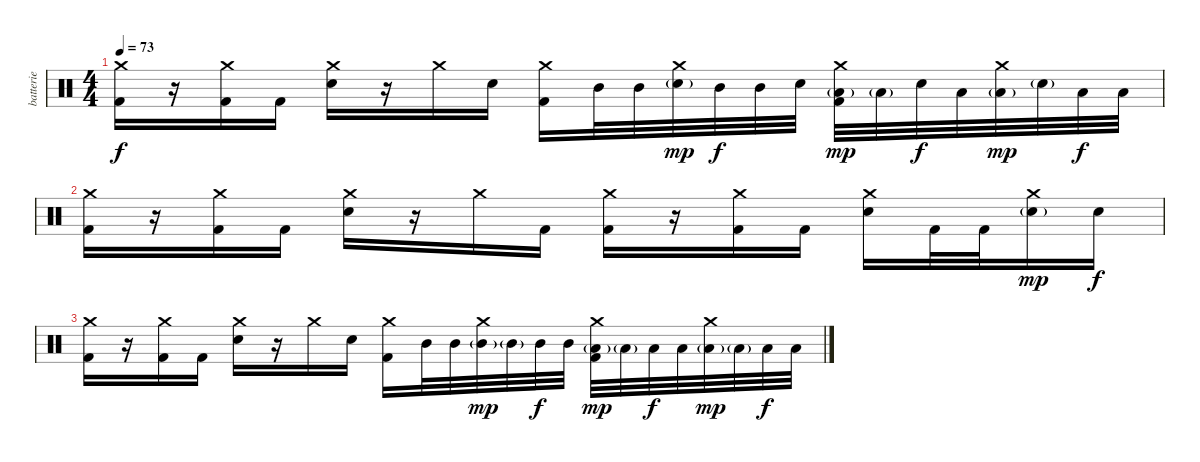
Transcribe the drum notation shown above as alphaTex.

\track ("batterie" "batterie") {instrument percussion}
\staff {score}
\articulation defaults
\ts (4 4)
\tempo 73
\clef neutral
\ks c
("Crash medium (hit)" "Kick (hit) 2").16{dy f volume 9} r.16 ("Crash medium (hit)" "Kick (hit) 2").16 "Kick (hit) 2".16 ("Crash medium (hit)" "Electric Snare (hit)").16 r.16 "Crash medium (hit)".16 "Electric Snare (hit)".16 ("Crash medium (hit)" "Kick (hit) 2").16 "Mid Tom (hit)".32 "Mid Tom (hit)".32 ("Crash medium (hit)" "Electric Snare (hit)"{g}).32{dy mp} "Mid Tom (hit)".32{dy f} "Mid Tom (hit)".32 "Electric Snare (hit)".32 ("Crash medium (hit)" "Low Tom (hit)"{g} "Kick (hit) 2").32{dy mp} "Low Tom (hit)"{g}.32 "Electric Snare (hit)".32{dy f} "Low Tom (hit)".32 ("Crash medium (hit)" "Low Tom (hit)"{g}).32{dy mp} "Electric Snare (hit)"{g}.32 "Low Tom (hit)".32{dy f} "Low Tom (hit)".32 |
("Crash medium (hit)" "Kick (hit) 2").16{volume 6} r.16 ("Crash medium (hit)" "Kick (hit) 2").16 "Kick (hit) 2".16 ("Crash medium (hit)" "Electric Snare (hit)").16 r.16 "Crash medium (hit)".16 "Kick (hit) 2".16 ("Crash medium (hit)" "Kick (hit) 2").16 r.16 ("Crash medium (hit)" "Kick (hit) 2").16 "Kick (hit) 2".16 ("Crash medium (hit)" "Electric Snare (hit)").16 "Kick (hit) 2".32 "Kick (hit) 2".32 ("Crash medium (hit)" "Electric Snare (hit)"{g}).16{dy mp} "Electric Snare (hit)".16{dy f} |
("Crash medium (hit)" "Kick (hit) 2").16{volume 4} r.16 ("Crash medium (hit)" "Kick (hit) 2").16 "Kick (hit) 2".16 ("Crash medium (hit)" "Electric Snare (hit)").16 r.16 "Crash medium (hit)".16 "Electric Snare (hit)".16 ("Crash medium (hit)" "Kick (hit) 2").16{volume 2} "Mid Tom (hit)".32 "Mid Tom (hit)".32 ("Crash medium (hit)" "Mid Tom (hit)"{g}).32{dy mp} "Mid Tom (hit)"{g}.32 "Mid Tom (hit)".32{dy f} "Mid Tom (hit)".32 ("Crash medium (hit)" "Low Tom (hit)"{g} "Kick (hit) 2").32{dy mp} "Low Tom (hit)"{g}.32 "Low Tom (hit)".32{dy f} "Low Tom (hit)".32 ("Crash medium (hit)" "Low Tom (hit)"{g}).32{dy mp} "Low Tom (hit)"{g}.32 "Low Tom (hit)".32{dy f} "Low Tom (hit)".32
